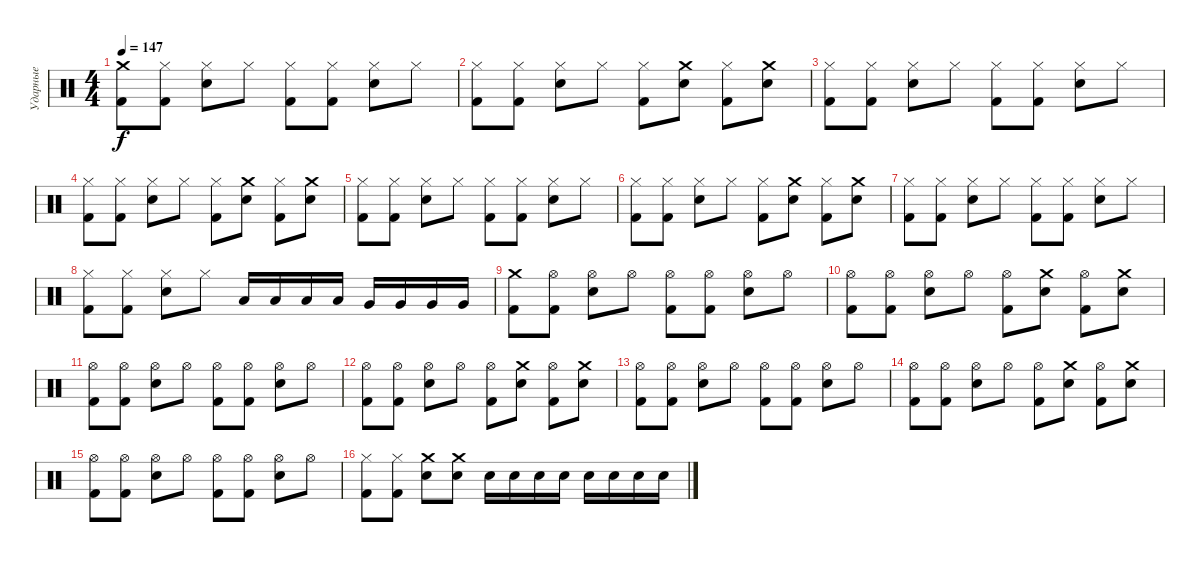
\track ("Ударные" "Ударные") {instrument percussion}
\staff {score}
\articulation defaults
\ts (4 4)
\tempo 147
\clef neutral
\ks c
("Crash medium (hit)" "Kick (hit) 2").8{dy f} ("Hi-Hat (closed)" "Kick (hit) 2").8 ("Hi-Hat (closed)" "Electric Snare (hit)").8 "Hi-Hat (closed)".8 ("Hi-Hat (closed)" "Kick (hit) 2").8 ("Hi-Hat (closed)" "Kick (hit) 2").8 ("Hi-Hat (closed)" "Electric Snare (hit)").8 "Hi-Hat (closed)".8 |
("Hi-Hat (closed)" "Kick (hit) 2").8 ("Hi-Hat (closed)" "Kick (hit) 2").8 ("Hi-Hat (closed)" "Electric Snare (hit)").8 "Hi-Hat (closed)".8 ("Hi-Hat (closed)" "Kick (hit) 2").8 ("Crash medium (hit)" "Electric Snare (hit)").8 ("Hi-Hat (closed)" "Kick (hit) 2").8 ("Crash medium (hit)" "Electric Snare (hit)").8 |
("Hi-Hat (closed)" "Kick (hit) 2").8 ("Hi-Hat (closed)" "Kick (hit) 2").8 ("Hi-Hat (closed)" "Electric Snare (hit)").8 "Hi-Hat (closed)".8 ("Hi-Hat (closed)" "Kick (hit) 2").8 ("Hi-Hat (closed)" "Kick (hit) 2").8 ("Hi-Hat (closed)" "Electric Snare (hit)").8 "Hi-Hat (closed)".8 |
("Hi-Hat (closed)" "Kick (hit) 2").8 ("Hi-Hat (closed)" "Kick (hit) 2").8 ("Hi-Hat (closed)" "Electric Snare (hit)").8 "Hi-Hat (closed)".8 ("Hi-Hat (closed)" "Kick (hit) 2").8 ("Crash medium (hit)" "Electric Snare (hit)").8 ("Hi-Hat (closed)" "Kick (hit) 2").8 ("Crash medium (hit)" "Electric Snare (hit)").8 |
("Hi-Hat (closed)" "Kick (hit) 2").8 ("Hi-Hat (closed)" "Kick (hit) 2").8 ("Hi-Hat (closed)" "Electric Snare (hit)").8 "Hi-Hat (closed)".8 ("Hi-Hat (closed)" "Kick (hit) 2").8 ("Hi-Hat (closed)" "Kick (hit) 2").8 ("Hi-Hat (closed)" "Electric Snare (hit)").8 "Hi-Hat (closed)".8 |
("Hi-Hat (closed)" "Kick (hit) 2").8 ("Hi-Hat (closed)" "Kick (hit) 2").8 ("Hi-Hat (closed)" "Electric Snare (hit)").8 "Hi-Hat (closed)".8 ("Hi-Hat (closed)" "Kick (hit) 2").8 ("Crash medium (hit)" "Electric Snare (hit)").8 ("Hi-Hat (closed)" "Kick (hit) 2").8 ("Crash medium (hit)" "Electric Snare (hit)").8 |
("Hi-Hat (closed)" "Kick (hit) 2").8 ("Hi-Hat (closed)" "Kick (hit) 2").8 ("Hi-Hat (closed)" "Electric Snare (hit)").8 "Hi-Hat (closed)".8 ("Hi-Hat (closed)" "Kick (hit) 2").8 ("Hi-Hat (closed)" "Kick (hit) 2").8 ("Hi-Hat (closed)" "Electric Snare (hit)").8 "Hi-Hat (closed)".8 |
("Hi-Hat (closed)" "Kick (hit) 2").8 ("Hi-Hat (closed)" "Kick (hit) 2").8 ("Hi-Hat (closed)" "Electric Snare (hit)").8 "Hi-Hat (closed)".8 "Low Tom (hit)".16 "Low Tom (hit)".16 "Low Tom (hit)".16 "Low Tom (hit)".16 "Very Low Tom (hit)".16 "Very Low Tom (hit)".16 "Very Low Tom (hit)".16 "Very Low Tom (hit)".16 |
("Crash medium (hit)" "Kick (hit) 2").8 ("Hi-Hat (open)" "Kick (hit) 2").8 ("Hi-Hat (open)" "Electric Snare (hit)").8 "Hi-Hat (open)".8 ("Hi-Hat (open)" "Kick (hit) 2").8 ("Hi-Hat (open)" "Kick (hit) 2").8 ("Hi-Hat (open)" "Electric Snare (hit)").8 "Hi-Hat (open)".8 |
("Hi-Hat (open)" "Kick (hit) 2").8 ("Hi-Hat (open)" "Kick (hit) 2").8 ("Hi-Hat (open)" "Electric Snare (hit)").8 "Hi-Hat (open)".8 ("Hi-Hat (open)" "Kick (hit) 2").8 ("Crash medium (hit)" "Electric Snare (hit)").8 ("Hi-Hat (open)" "Kick (hit) 2").8 ("Crash medium (hit)" "Electric Snare (hit)").8 |
("Hi-Hat (open)" "Kick (hit) 2").8 ("Hi-Hat (open)" "Kick (hit) 2").8 ("Hi-Hat (open)" "Electric Snare (hit)").8 "Hi-Hat (open)".8 ("Hi-Hat (open)" "Kick (hit) 2").8 ("Hi-Hat (open)" "Kick (hit) 2").8 ("Hi-Hat (open)" "Electric Snare (hit)").8 "Hi-Hat (open)".8 |
("Hi-Hat (open)" "Kick (hit) 2").8 ("Hi-Hat (open)" "Kick (hit) 2").8 ("Hi-Hat (open)" "Electric Snare (hit)").8 "Hi-Hat (open)".8 ("Hi-Hat (open)" "Kick (hit) 2").8 ("Crash medium (hit)" "Electric Snare (hit)").8 ("Hi-Hat (open)" "Kick (hit) 2").8 ("Crash medium (hit)" "Electric Snare (hit)").8 |
("Hi-Hat (open)" "Kick (hit) 2").8 ("Hi-Hat (open)" "Kick (hit) 2").8 ("Hi-Hat (open)" "Electric Snare (hit)").8 "Hi-Hat (open)".8 ("Hi-Hat (open)" "Kick (hit) 2").8 ("Hi-Hat (open)" "Kick (hit) 2").8 ("Hi-Hat (open)" "Electric Snare (hit)").8 "Hi-Hat (open)".8 |
("Hi-Hat (open)" "Kick (hit) 2").8 ("Hi-Hat (open)" "Kick (hit) 2").8 ("Hi-Hat (open)" "Electric Snare (hit)").8 "Hi-Hat (open)".8 ("Hi-Hat (open)" "Kick (hit) 2").8 ("Crash medium (hit)" "Electric Snare (hit)").8 ("Hi-Hat (open)" "Kick (hit) 2").8 ("Crash medium (hit)" "Electric Snare (hit)").8 |
("Hi-Hat (open)" "Kick (hit) 2").8 ("Hi-Hat (open)" "Kick (hit) 2").8 ("Hi-Hat (open)" "Electric Snare (hit)").8 "Hi-Hat (open)".8 ("Hi-Hat (open)" "Kick (hit) 2").8 ("Hi-Hat (open)" "Kick (hit) 2").8 ("Hi-Hat (open)" "Electric Snare (hit)").8 "Hi-Hat (open)".8 |
("Hi-Hat (closed)" "Kick (hit) 2").8 ("Hi-Hat (closed)" "Kick (hit) 2").8 ("Crash medium (hit)" "Electric Snare (hit)").8 ("Crash medium (hit)" "Electric Snare (hit)").8 "Electric Snare (hit)".16 "Electric Snare (hit)".16 "Electric Snare (hit)".16 "Electric Snare (hit)".16 "Electric Snare (hit)".16 "Electric Snare (hit)".16 "Electric Snare (hit)".16 "Electric Snare (hit)".16
